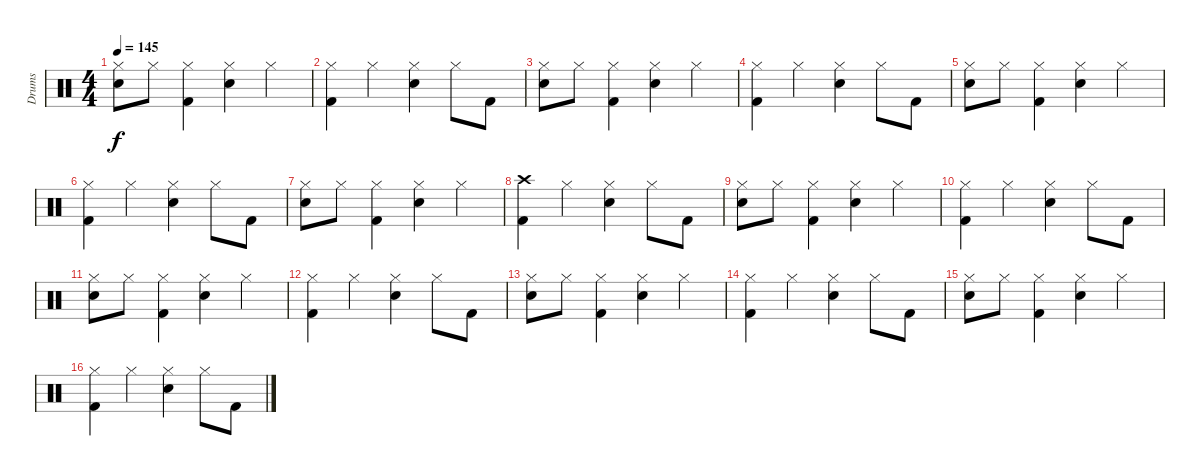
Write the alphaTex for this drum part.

\track ("Drums" "Drums") {instrument percussion}
\staff {score}
\articulation defaults
\ts (4 4)
\tempo 145
\clef neutral
\ks c
("Hi-Hat (closed)" "Snare (hit) 2").8{dy f} "Hi-Hat (closed)".8 ("Hi-Hat (closed)" "Kick (hit) 2").4 ("Hi-Hat (closed)" "Snare (hit) 2").4 "Hi-Hat (closed)".4 |
("Hi-Hat (closed)" "Kick (hit) 2").4 "Hi-Hat (closed)".4 ("Hi-Hat (closed)" "Snare (hit) 2").4 "Hi-Hat (closed)".8 "Kick (hit) 2".8 |
("Hi-Hat (closed)" "Snare (hit) 2").8 "Hi-Hat (closed)".8 ("Hi-Hat (closed)" "Kick (hit) 2").4 ("Hi-Hat (closed)" "Snare (hit) 2").4 "Hi-Hat (closed)".4 |
("Hi-Hat (closed)" "Kick (hit) 2").4 "Hi-Hat (closed)".4 ("Hi-Hat (closed)" "Snare (hit) 2").4 "Hi-Hat (closed)".8 "Kick (hit) 2".8 |
("Hi-Hat (closed)" "Snare (hit) 2").8 "Hi-Hat (closed)".8 ("Hi-Hat (closed)" "Kick (hit) 2").4 ("Hi-Hat (closed)" "Snare (hit) 2").4 "Hi-Hat (closed)".4 |
("Hi-Hat (closed)" "Kick (hit) 2").4 "Hi-Hat (closed)".4 ("Hi-Hat (closed)" "Snare (hit) 2").4 "Hi-Hat (closed)".8 "Kick (hit) 2".8 |
("Hi-Hat (closed)" "Snare (hit) 2").8 "Hi-Hat (closed)".8 ("Hi-Hat (closed)" "Kick (hit) 2").4 ("Hi-Hat (closed)" "Snare (hit) 2").4 "Hi-Hat (closed)".4 |
("Crash high (hit)" "Kick (hit) 2").4 "Hi-Hat (closed)".4 ("Hi-Hat (closed)" "Snare (hit) 2").4 "Hi-Hat (closed)".8 "Kick (hit) 2".8 |
("Hi-Hat (closed)" "Snare (hit) 2").8 "Hi-Hat (closed)".8 ("Hi-Hat (closed)" "Kick (hit) 2").4 ("Hi-Hat (closed)" "Snare (hit) 2").4 "Hi-Hat (closed)".4 |
("Hi-Hat (closed)" "Kick (hit) 2").4 "Hi-Hat (closed)".4 ("Hi-Hat (closed)" "Snare (hit) 2").4 "Hi-Hat (closed)".8 "Kick (hit) 2".8 |
("Hi-Hat (closed)" "Snare (hit) 2").8 "Hi-Hat (closed)".8 ("Hi-Hat (closed)" "Kick (hit) 2").4 ("Hi-Hat (closed)" "Snare (hit) 2").4 "Hi-Hat (closed)".4 |
("Hi-Hat (closed)" "Kick (hit) 2").4 "Hi-Hat (closed)".4 ("Hi-Hat (closed)" "Snare (hit) 2").4 "Hi-Hat (closed)".8 "Kick (hit) 2".8 |
("Hi-Hat (closed)" "Snare (hit) 2").8 "Hi-Hat (closed)".8 ("Hi-Hat (closed)" "Kick (hit) 2").4 ("Hi-Hat (closed)" "Snare (hit) 2").4 "Hi-Hat (closed)".4 |
("Hi-Hat (closed)" "Kick (hit) 2").4 "Hi-Hat (closed)".4 ("Hi-Hat (closed)" "Snare (hit) 2").4 "Hi-Hat (closed)".8 "Kick (hit) 2".8 |
("Hi-Hat (closed)" "Snare (hit) 2").8 "Hi-Hat (closed)".8 ("Hi-Hat (closed)" "Kick (hit) 2").4 ("Hi-Hat (closed)" "Snare (hit) 2").4 "Hi-Hat (closed)".4 |
("Hi-Hat (closed)" "Kick (hit) 2").4 "Hi-Hat (closed)".4 ("Hi-Hat (closed)" "Snare (hit) 2").4 "Hi-Hat (closed)".8 "Kick (hit) 2".8
